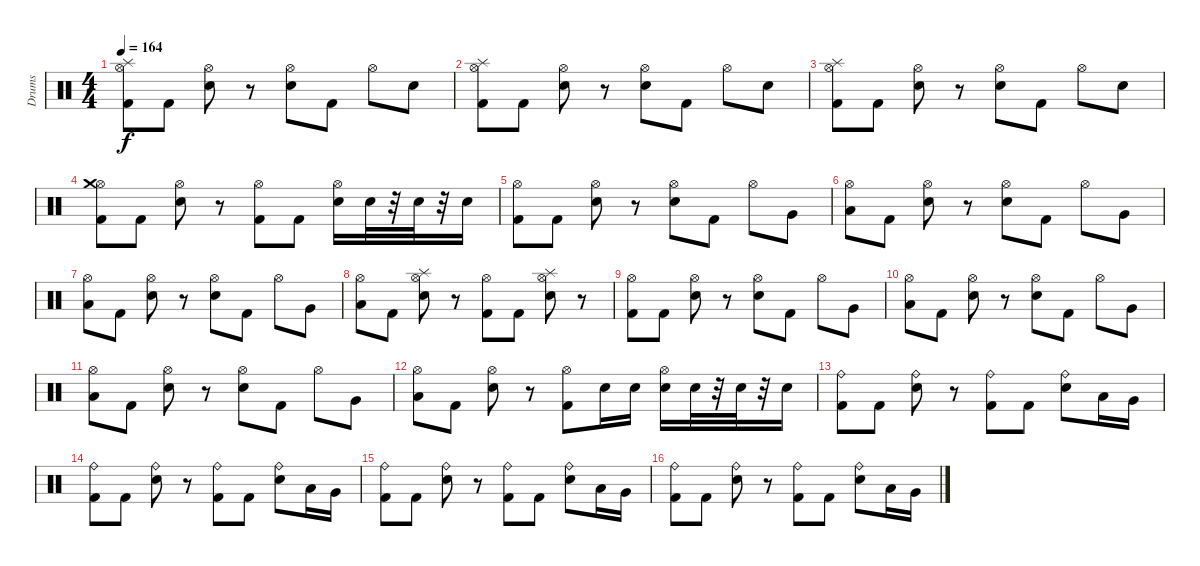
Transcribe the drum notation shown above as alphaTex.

\track ("Drums" "Drums") {instrument percussion}
\staff {score}
\articulation defaults
\ts (4 4)
\tempo 164
\clef neutral
\ks c
("Hi-Hat (open)" "Kick (hit) 2" "Splash (hit)").8{dy f} "Kick (hit) 2".8 ("Hi-Hat (open)" "Electric Snare (hit)").8 r.8 ("Hi-Hat (open)" "Electric Snare (hit)").8 "Kick (hit) 2".8 "Hi-Hat (open)".8 "Electric Snare (hit)".8 |
("Hi-Hat (open)" "Kick (hit) 2" "Splash (hit)").8 "Kick (hit) 2".8 ("Hi-Hat (open)" "Electric Snare (hit)").8 r.8 ("Hi-Hat (open)" "Electric Snare (hit)").8 "Kick (hit) 2".8 "Hi-Hat (open)".8 "Electric Snare (hit)".8 |
("Hi-Hat (open)" "Kick (hit) 2" "Splash (hit)").8 "Kick (hit) 2".8 ("Hi-Hat (open)" "Electric Snare (hit)").8 r.8 ("Hi-Hat (open)" "Electric Snare (hit)").8 "Kick (hit) 2".8 "Hi-Hat (open)".8 "Electric Snare (hit)".8 |
("Hi-Hat (open)" "Kick (hit) 2" "Crash medium (hit)").8 "Kick (hit) 2".8 ("Hi-Hat (open)" "Electric Snare (hit)").8 r.8 ("Hi-Hat (open)" "Kick (hit) 2").8 "Kick (hit) 2".8 ("Hi-Hat (open)" "Electric Snare (hit)").16 "Electric Snare (hit)".32 r.32 "Electric Snare (hit)".32 r.32 "Electric Snare (hit)".16 |
("Hi-Hat (open)" "Kick (hit) 2").8 "Kick (hit) 2".8 ("Hi-Hat (open)" "Electric Snare (hit)").8 r.8 ("Hi-Hat (open)" "Electric Snare (hit)").8 "Kick (hit) 2".8 "Hi-Hat (open)".8 "Very Low Tom (hit)".8 |
("Hi-Hat (open)" "Low Floor Tom (hit)").8 "Kick (hit) 2".8 ("Hi-Hat (open)" "Electric Snare (hit)").8 r.8 ("Hi-Hat (open)" "Electric Snare (hit)").8 "Kick (hit) 2".8 "Hi-Hat (open)".8 "Very Low Tom (hit)".8 |
("Hi-Hat (open)" "Low Floor Tom (hit)").8 "Kick (hit) 2".8 ("Hi-Hat (open)" "Electric Snare (hit)").8 r.8 ("Hi-Hat (open)" "Electric Snare (hit)").8 "Kick (hit) 2".8 "Hi-Hat (open)".8 "Very Low Tom (hit)".8 |
("Hi-Hat (open)" "Low Floor Tom (hit)").8 "Kick (hit) 2".8 ("Hi-Hat (open)" "Electric Snare (hit)" "Splash (hit)").8 r.8 ("Hi-Hat (open)" "Kick (hit) 2").8 "Kick (hit) 2".8 ("Hi-Hat (open)" "Electric Snare (hit)" "Splash (hit)").8 r.8 |
("Hi-Hat (open)" "Kick (hit) 2").8 "Kick (hit) 2".8 ("Hi-Hat (open)" "Electric Snare (hit)").8 r.8 ("Hi-Hat (open)" "Electric Snare (hit)").8 "Kick (hit) 2".8 "Hi-Hat (open)".8 "Very Low Tom (hit)".8 |
("Hi-Hat (open)" "Low Floor Tom (hit)").8 "Kick (hit) 2".8 ("Hi-Hat (open)" "Electric Snare (hit)").8 r.8 ("Hi-Hat (open)" "Electric Snare (hit)").8 "Kick (hit) 2".8 "Hi-Hat (open)".8 "Very Low Tom (hit)".8 |
("Hi-Hat (open)" "Low Floor Tom (hit)").8 "Kick (hit) 2".8 ("Hi-Hat (open)" "Electric Snare (hit)").8 r.8 ("Hi-Hat (open)" "Electric Snare (hit)").8 "Kick (hit) 2".8 "Hi-Hat (open)".8 "Very Low Tom (hit)".8 |
("Hi-Hat (open)" "Low Floor Tom (hit)").8 "Kick (hit) 2".8 ("Hi-Hat (open)" "Electric Snare (hit)").8 r.8 ("Hi-Hat (open)" "Kick (hit) 2").8 "Electric Snare (hit)".16 "Electric Snare (hit)".16 ("Hi-Hat (open)" "Electric Snare (hit)").16 "Electric Snare (hit)".32 r.32 "Electric Snare (hit)".32 r.32 "Electric Snare (hit)".16 |
("Ride (bell)" "Kick (hit) 2").8 "Kick (hit) 2".8 ("Ride (bell)" "Electric Snare (hit)").8 r.8 ("Ride (bell)" "Kick (hit) 2").8 "Kick (hit) 2".8 ("Ride (bell)" "Electric Snare (hit)").8 "Low Tom (hit)".16 "Very Low Tom (hit)".16 |
("Ride (bell)" "Kick (hit) 2").8 "Kick (hit) 2".8 ("Ride (bell)" "Electric Snare (hit)").8 r.8 ("Ride (bell)" "Kick (hit) 2").8 "Kick (hit) 2".8 ("Ride (bell)" "Electric Snare (hit)").8 "Low Tom (hit)".16 "Very Low Tom (hit)".16 |
("Ride (bell)" "Kick (hit) 2").8 "Kick (hit) 2".8 ("Ride (bell)" "Electric Snare (hit)").8 r.8 ("Ride (bell)" "Kick (hit) 2").8 "Kick (hit) 2".8 ("Ride (bell)" "Electric Snare (hit)").8 "Low Tom (hit)".16 "Very Low Tom (hit)".16 |
("Ride (bell)" "Kick (hit) 2").8 "Kick (hit) 2".8 ("Ride (bell)" "Electric Snare (hit)").8 r.8 ("Ride (bell)" "Kick (hit) 2").8 "Kick (hit) 2".8 ("Ride (bell)" "Electric Snare (hit)").8 "Low Tom (hit)".16 "Very Low Tom (hit)".16
